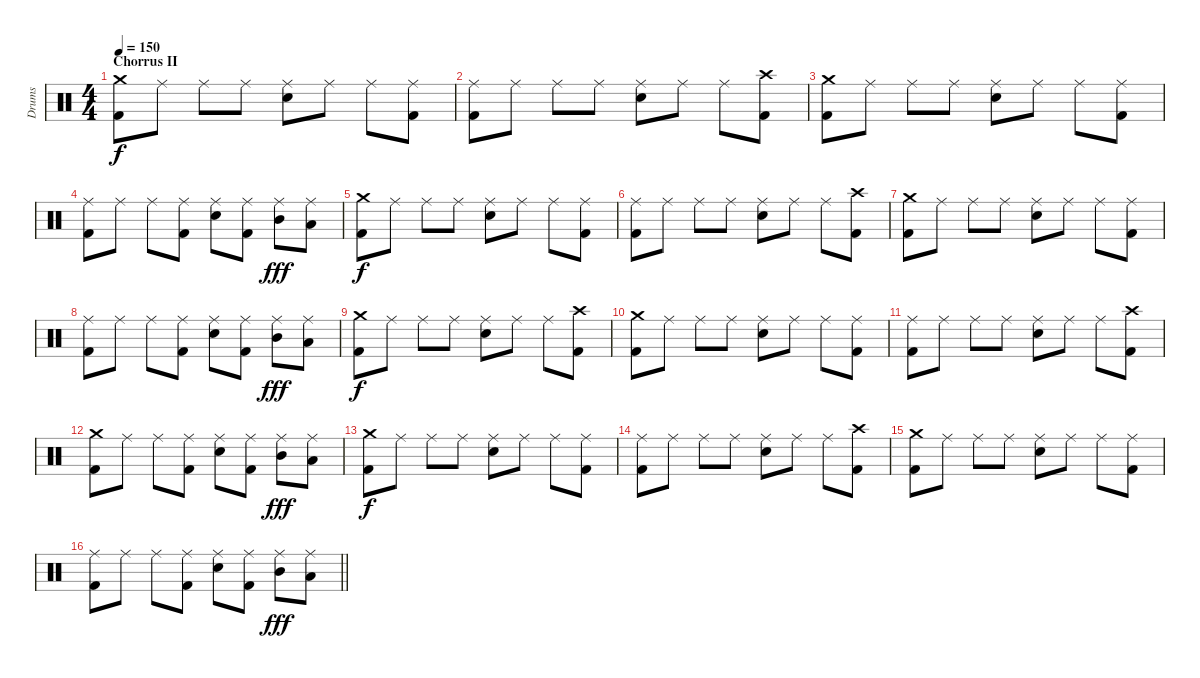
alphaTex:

\track ("Drums" "Drums") {instrument percussion}
\staff {score}
\articulation defaults
\ts (4 4)
\section ("" "Chorrus II")
\tempo 150
\clef neutral
\ks c
("Crash medium (hit)" "Kick (hit) 2").8{dy f} "Ride (middle)".8 "Ride (middle)".8 "Ride (middle)".8 ("Ride (middle)" "Electric Snare (hit)").8 "Ride (middle)".8 "Ride (middle)".8 ("Ride (middle)" "Kick (hit) 2").8 |
("Ride (middle)" "Kick (hit) 2").8 "Ride (middle)".8 "Ride (middle)".8 "Ride (middle)".8 ("Ride (middle)" "Electric Snare (hit)").8 "Ride (middle)".8 "Ride (middle)".8 ("Crash high (hit)" "Kick (hit) 2").8 |
("Crash medium (hit)" "Kick (hit) 2").8 "Ride (middle)".8 "Ride (middle)".8 "Ride (middle)".8 ("Ride (middle)" "Electric Snare (hit)").8 "Ride (middle)".8 "Ride (middle)".8 ("Ride (middle)" "Kick (hit) 2").8 |
("Ride (middle)" "Kick (hit) 2").8 "Ride (middle)".8 "Ride (middle)".8 ("Ride (middle)" "Kick (hit) 2").8 ("Ride (middle)" "Electric Snare (hit)").8 ("Ride (middle)" "Kick (hit) 2").8 ("Ride (middle)" "Mid Tom (hit)").8{dy fff} ("Ride (middle)" "Low Tom (hit)").8 |
("Crash medium (hit)" "Kick (hit) 2").8{dy f} "Ride (middle)".8 "Ride (middle)".8 "Ride (middle)".8 ("Ride (middle)" "Electric Snare (hit)").8 "Ride (middle)".8 "Ride (middle)".8 ("Ride (middle)" "Kick (hit) 2").8 |
("Ride (middle)" "Kick (hit) 2").8 "Ride (middle)".8 "Ride (middle)".8 "Ride (middle)".8 ("Ride (middle)" "Electric Snare (hit)").8 "Ride (middle)".8 "Ride (middle)".8 ("Crash high (hit)" "Kick (hit) 2").8 |
("Crash medium (hit)" "Kick (hit) 2").8 "Ride (middle)".8 "Ride (middle)".8 "Ride (middle)".8 ("Ride (middle)" "Electric Snare (hit)").8 "Ride (middle)".8 "Ride (middle)".8 ("Ride (middle)" "Kick (hit) 2").8 |
("Ride (middle)" "Kick (hit) 2").8 "Ride (middle)".8 "Ride (middle)".8 ("Ride (middle)" "Kick (hit) 2").8 ("Ride (middle)" "Electric Snare (hit)").8 ("Ride (middle)" "Kick (hit) 2").8 ("Ride (middle)" "Mid Tom (hit)").8{dy fff} ("Ride (middle)" "Low Tom (hit)").8 |
("Crash medium (hit)" "Kick (hit) 2").8{dy f} "Ride (middle)".8 "Ride (middle)".8 "Ride (middle)".8 ("Ride (middle)" "Electric Snare (hit)").8 "Ride (middle)".8 "Ride (middle)".8 ("Crash high (hit)" "Kick (hit) 2").8 |
("Crash medium (hit)" "Kick (hit) 2").8 "Ride (middle)".8 "Ride (middle)".8 "Ride (middle)".8 ("Ride (middle)" "Electric Snare (hit)").8 "Ride (middle)".8 "Ride (middle)".8 ("Ride (middle)" "Kick (hit) 2").8 |
("Ride (middle)" "Kick (hit) 2").8 "Ride (middle)".8 "Ride (middle)".8 "Ride (middle)".8 ("Ride (middle)" "Electric Snare (hit)").8 "Ride (middle)".8 "Ride (middle)".8 ("Crash high (hit)" "Kick (hit) 2").8 |
("Crash medium (hit)" "Kick (hit) 2").8 "Ride (middle)".8 "Ride (middle)".8 ("Ride (middle)" "Kick (hit) 2").8 ("Ride (middle)" "Electric Snare (hit)").8 ("Ride (middle)" "Kick (hit) 2").8 ("Ride (middle)" "Mid Tom (hit)").8{dy fff} ("Ride (middle)" "Low Tom (hit)").8 |
("Crash medium (hit)" "Kick (hit) 2").8{dy f} "Ride (middle)".8 "Ride (middle)".8 "Ride (middle)".8 ("Ride (middle)" "Electric Snare (hit)").8 "Ride (middle)".8 "Ride (middle)".8 ("Ride (middle)" "Kick (hit) 2").8 |
("Ride (middle)" "Kick (hit) 2").8 "Ride (middle)".8 "Ride (middle)".8 "Ride (middle)".8 ("Ride (middle)" "Electric Snare (hit)").8 "Ride (middle)".8 "Ride (middle)".8 ("Crash high (hit)" "Kick (hit) 2").8 |
("Crash medium (hit)" "Kick (hit) 2").8 "Ride (middle)".8 "Ride (middle)".8 "Ride (middle)".8 ("Ride (middle)" "Electric Snare (hit)").8 "Ride (middle)".8 "Ride (middle)".8 ("Ride (middle)" "Kick (hit) 2").8 |
\barLineRight lightlight
("Ride (middle)" "Kick (hit) 2").8 "Ride (middle)".8 "Ride (middle)".8 ("Ride (middle)" "Kick (hit) 2").8 ("Ride (middle)" "Electric Snare (hit)").8 ("Ride (middle)" "Kick (hit) 2").8 ("Ride (middle)" "Mid Tom (hit)").8{dy fff} ("Ride (middle)" "Low Tom (hit)").8
